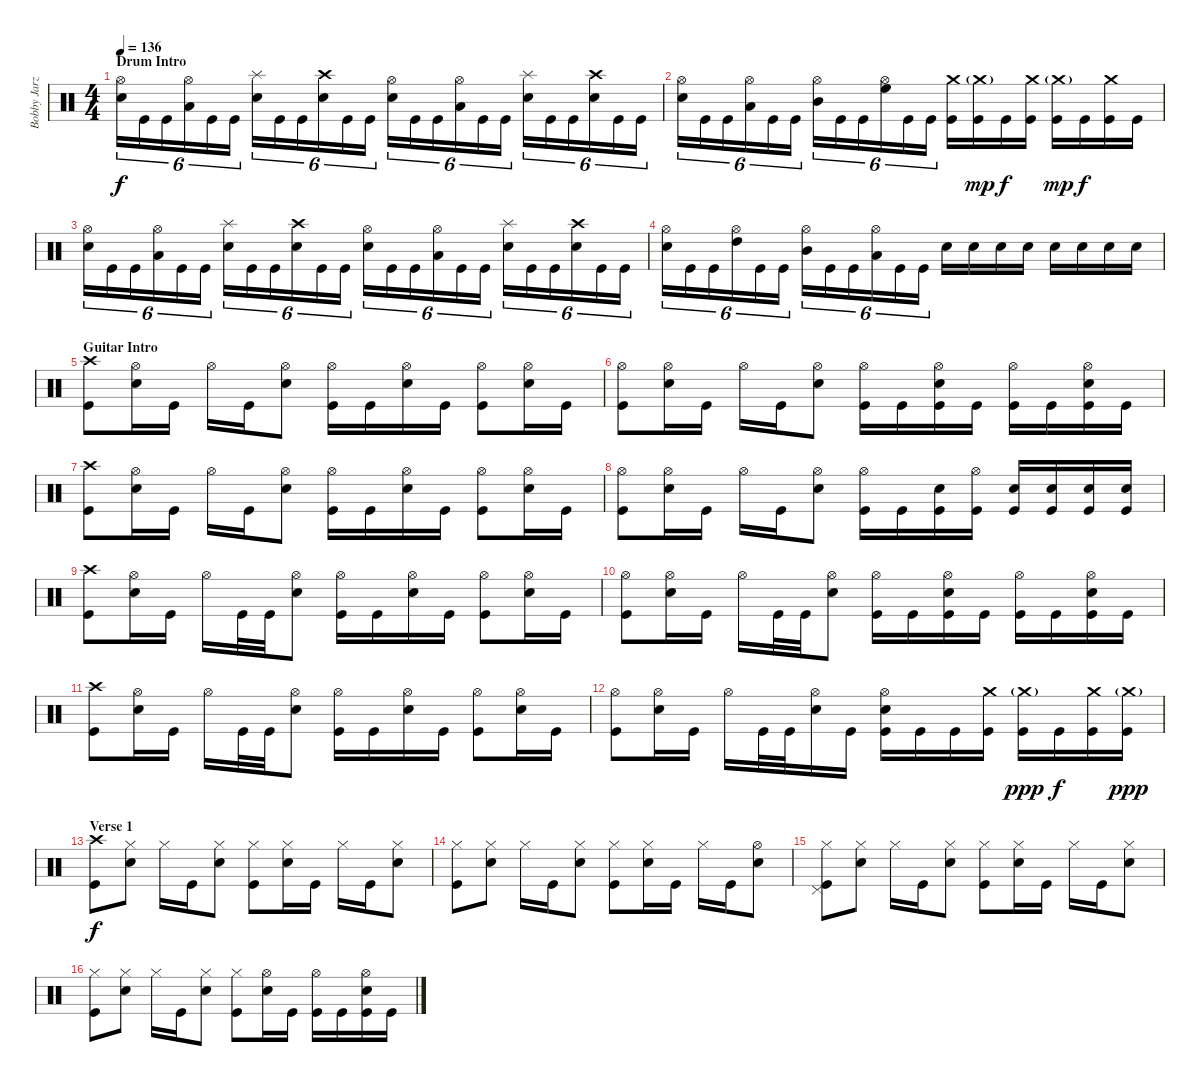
\track ("Bobby Jarzombek" "Bobby Jarz") {instrument percussion}
\staff {score}
\articulation defaults
\ts (4 4)
\section ("" "Drum Intro")
\tempo 136
\clef neutral
\ks c
("Hi-Hat (open)" "Electric Snare (hit)").16{tu (6 4) dy f} "Kick (hit)".16{tu (6 4)} "Kick (hit)".16{tu (6 4)} ("Hi-Hat (open)" "Low Tom (hit)").16{tu (6 4)} "Kick (hit)".16{tu (6 4)} "Kick (hit)".16{tu (6 4)} ("Splash (hit)" "Electric Snare (hit)").16{tu (6 4)} "Kick (hit)".16{tu (6 4)} "Kick (hit)".16{tu (6 4)} ("Crash high (hit)" "Electric Snare (hit)").16{tu (6 4)} "Kick (hit)".16{tu (6 4)} "Kick (hit)".16{tu (6 4)} ("Hi-Hat (open)" "Electric Snare (hit)").16{tu (6 4)} "Kick (hit)".16{tu (6 4)} "Kick (hit)".16{tu (6 4)} ("Hi-Hat (open)" "Low Tom (hit)").16{tu (6 4)} "Kick (hit)".16{tu (6 4)} "Kick (hit)".16{tu (6 4)} ("Splash (hit)" "Electric Snare (hit)").16{tu (6 4)} "Kick (hit)".16{tu (6 4)} "Kick (hit)".16{tu (6 4)} ("Crash high (hit)" "Electric Snare (hit)").16{tu (6 4)} "Kick (hit)".16{tu (6 4)} "Kick (hit)".16{tu (6 4)} |
("Hi-Hat (open)" "Electric Snare (hit)").16{tu (6 4)} "Kick (hit)".16{tu (6 4)} "Kick (hit)".16{tu (6 4)} ("Hi-Hat (open)" "Low Tom (hit)").16{tu (6 4)} "Kick (hit)".16{tu (6 4)} "Kick (hit)".16{tu (6 4)} ("Hi-Hat (open)" "Mid Tom (hit)").16{tu (6 4)} "Kick (hit)".16{tu (6 4)} "Kick (hit)".16{tu (6 4)} ("Hi-Hat (open)" "High Floor Tom (hit)").16{tu (6 4)} "Kick (hit)".16{tu (6 4)} "Kick (hit)".16{tu (6 4)} ("Crash medium (hit)" "Kick (hit)").16 ("Crash medium (hit)"{g} "Kick (hit)").16{dy mp} "Kick (hit)".16{dy f} ("Crash medium (hit)" "Kick (hit)").16 ("Crash medium (hit)"{g} "Kick (hit)").16{dy mp} "Kick (hit)".16{dy f} ("Crash medium (hit)" "Kick (hit)").16 "Kick (hit)".16 |
("Hi-Hat (open)" "Electric Snare (hit)").16{tu (6 4)} "Kick (hit)".16{tu (6 4)} "Kick (hit)".16{tu (6 4)} ("Hi-Hat (open)" "Low Tom (hit)").16{tu (6 4)} "Kick (hit)".16{tu (6 4)} "Kick (hit)".16{tu (6 4)} ("Splash (hit)" "Electric Snare (hit)").16{tu (6 4)} "Kick (hit)".16{tu (6 4)} "Kick (hit)".16{tu (6 4)} ("Crash high (hit)" "Electric Snare (hit)").16{tu (6 4)} "Kick (hit)".16{tu (6 4)} "Kick (hit)".16{tu (6 4)} ("Hi-Hat (open)" "Electric Snare (hit)").16{tu (6 4)} "Kick (hit)".16{tu (6 4)} "Kick (hit)".16{tu (6 4)} ("Hi-Hat (open)" "Low Tom (hit)").16{tu (6 4)} "Kick (hit)".16{tu (6 4)} "Kick (hit)".16{tu (6 4)} ("Splash (hit)" "Electric Snare (hit)").16{tu (6 4)} "Kick (hit)".16{tu (6 4)} "Kick (hit)".16{tu (6 4)} ("Crash high (hit)" "Electric Snare (hit)").16{tu (6 4)} "Kick (hit)".16{tu (6 4)} "Kick (hit)".16{tu (6 4)} |
("Hi-Hat (open)" "Electric Snare (hit)").16{tu (6 4)} "Kick (hit)".16{tu (6 4)} "Kick (hit)".16{tu (6 4)} ("Hi-Hat (open)" "High Tom (hit)").16{tu (6 4)} "Kick (hit)".16{tu (6 4)} "Kick (hit)".16{tu (6 4)} ("Hi-Hat (open)" "Mid Tom (hit)").16{tu (6 4)} "Kick (hit)".16{tu (6 4)} "Kick (hit)".16{tu (6 4)} ("Hi-Hat (open)" "Low Tom (hit)").16{tu (6 4)} "Kick (hit)".16{tu (6 4)} "Kick (hit)".16{tu (6 4)} "Electric Snare (hit)".16 "Electric Snare (hit)".16 "Electric Snare (hit)".16 "Electric Snare (hit)".16 "Electric Snare (hit)".16 "Electric Snare (hit)".16 "Electric Snare (hit)".16 "Electric Snare (hit)".16 |
\section ("" "Guitar Intro")
("Crash high (hit)" "Kick (hit)").8 ("Hi-Hat (open)" "Electric Snare (hit)").16 "Kick (hit)".16 "Hi-Hat (open)".16 "Kick (hit)".16 ("Hi-Hat (open)" "Electric Snare (hit)").8 ("Hi-Hat (open)" "Kick (hit)").16 "Kick (hit)".16 ("Hi-Hat (open)" "Electric Snare (hit)").16 "Kick (hit)".16 ("Hi-Hat (open)" "Kick (hit)").8 ("Hi-Hat (open)" "Electric Snare (hit)").16 "Kick (hit)".16 |
("Hi-Hat (open)" "Kick (hit)").8 ("Hi-Hat (open)" "Electric Snare (hit)").16 "Kick (hit)".16 "Hi-Hat (open)".16 "Kick (hit)".16 ("Hi-Hat (open)" "Electric Snare (hit)").8 ("Hi-Hat (open)" "Kick (hit)").16 "Kick (hit)".16 ("Hi-Hat (open)" "Electric Snare (hit)" "Kick (hit)").16 "Kick (hit)".16 ("Hi-Hat (open)" "Kick (hit)").16 "Kick (hit)".16 ("Hi-Hat (open)" "Electric Snare (hit)" "Kick (hit)").16 "Kick (hit)".16 |
("Crash high (hit)" "Kick (hit)").8 ("Hi-Hat (open)" "Electric Snare (hit)").16 "Kick (hit)".16 "Hi-Hat (open)".16 "Kick (hit)".16 ("Hi-Hat (open)" "Electric Snare (hit)").8 ("Hi-Hat (open)" "Kick (hit)").16 "Kick (hit)".16 ("Hi-Hat (open)" "Electric Snare (hit)").16 "Kick (hit)".16 ("Hi-Hat (open)" "Kick (hit)").8 ("Hi-Hat (open)" "Electric Snare (hit)").16 "Kick (hit)".16 |
("Hi-Hat (open)" "Kick (hit)").8 ("Hi-Hat (open)" "Electric Snare (hit)").16 "Kick (hit)".16 "Hi-Hat (open)".16 "Kick (hit)".16 ("Hi-Hat (open)" "Electric Snare (hit)").8 ("Hi-Hat (open)" "Kick (hit)").16 "Kick (hit)".16 ("Electric Snare (hit)" "Kick (hit)").16 ("Hi-Hat (open)" "Kick (hit)").16 ("Electric Snare (hit)" "Kick (hit)").16 ("Electric Snare (hit)" "Kick (hit)").16 ("Electric Snare (hit)" "Kick (hit)").16 ("Electric Snare (hit)" "Kick (hit)").16 |
("Crash high (hit)" "Kick (hit)").8 ("Hi-Hat (open)" "Electric Snare (hit)").16 "Kick (hit)".16 "Hi-Hat (open)".16 "Kick (hit)".32 "Kick (hit)".32 ("Hi-Hat (open)" "Electric Snare (hit)").8 ("Hi-Hat (open)" "Kick (hit)").16 "Kick (hit)".16 ("Hi-Hat (open)" "Electric Snare (hit)").16 "Kick (hit)".16 ("Hi-Hat (open)" "Kick (hit)").8 ("Hi-Hat (open)" "Electric Snare (hit)").16 "Kick (hit)".16 |
("Hi-Hat (open)" "Kick (hit)").8 ("Hi-Hat (open)" "Electric Snare (hit)").16 "Kick (hit)".16 "Hi-Hat (open)".16 "Kick (hit)".32 "Kick (hit)".32 ("Hi-Hat (open)" "Electric Snare (hit)").8 ("Hi-Hat (open)" "Kick (hit)").16 "Kick (hit)".16 ("Hi-Hat (open)" "Electric Snare (hit)" "Kick (hit)").16 "Kick (hit)".16 ("Hi-Hat (open)" "Kick (hit)").16 "Kick (hit)".16 ("Hi-Hat (open)" "Electric Snare (hit)" "Kick (hit)").16 "Kick (hit)".16 |
("Crash high (hit)" "Kick (hit)").8 ("Hi-Hat (open)" "Electric Snare (hit)").16 "Kick (hit)".16 "Hi-Hat (open)".16 "Kick (hit)".32 "Kick (hit)".32 ("Hi-Hat (open)" "Electric Snare (hit)").8 ("Hi-Hat (open)" "Kick (hit)").16 "Kick (hit)".16 ("Hi-Hat (open)" "Electric Snare (hit)").16 "Kick (hit)".16 ("Hi-Hat (open)" "Kick (hit)").8 ("Hi-Hat (open)" "Electric Snare (hit)").16 "Kick (hit)".16 |
("Hi-Hat (open)" "Kick (hit)").8 ("Hi-Hat (open)" "Electric Snare (hit)").16 "Kick (hit)".16 "Hi-Hat (open)".16 "Kick (hit)".32 "Kick (hit)".32 ("Hi-Hat (open)" "Electric Snare (hit)").16 "Kick (hit)".16 ("Hi-Hat (open)" "Electric Snare (hit)" "Kick (hit)").16 "Kick (hit)".16 "Kick (hit)".16 ("Crash medium (hit)" "Kick (hit)").16 ("Crash medium (hit)"{g} "Kick (hit)").16{dy ppp} "Kick (hit)".16{dy f} ("Crash medium (hit)" "Kick (hit)").16 ("Crash medium (hit)"{g} "Kick (hit)").16{dy ppp} |
\section ("" "Verse 1")
("Crash high (hit)" "Kick (hit)").8{dy f} ("Hi-Hat (closed)" "Electric Snare (hit)").8 "Hi-Hat (closed)".16 "Kick (hit)".16 ("Hi-Hat (closed)" "Electric Snare (hit)").8 ("Hi-Hat (closed)" "Kick (hit)").8 ("Hi-Hat (closed)" "Electric Snare (hit)").16 "Kick (hit)".16 "Hi-Hat (closed)".16 "Kick (hit)".16 ("Hi-Hat (closed)" "Electric Snare (hit)").8 |
("Hi-Hat (closed)" "Kick (hit)").8 ("Hi-Hat (closed)" "Electric Snare (hit)").8 "Hi-Hat (closed)".16 "Kick (hit)".16 ("Hi-Hat (closed)" "Electric Snare (hit)").8 ("Hi-Hat (closed)" "Kick (hit)").8 ("Hi-Hat (closed)" "Electric Snare (hit)").16 "Kick (hit)".16 "Hi-Hat (closed)".16 "Kick (hit)".16 ("Hi-Hat (open)" "Electric Snare (hit)").8 |
("Hi-Hat (closed)" "Pedal Hi-Hat (hit)" "Kick (hit)").8 ("Hi-Hat (closed)" "Electric Snare (hit)").8 "Hi-Hat (closed)".16 "Kick (hit)".16 ("Hi-Hat (closed)" "Electric Snare (hit)").8 ("Hi-Hat (closed)" "Kick (hit)").8 ("Hi-Hat (closed)" "Electric Snare (hit)").16 "Kick (hit)".16 "Hi-Hat (closed)".16 "Kick (hit)".16 ("Hi-Hat (closed)" "Electric Snare (hit)").8 |
("Hi-Hat (closed)" "Kick (hit)").8 ("Hi-Hat (closed)" "Electric Snare (hit)").8 "Hi-Hat (closed)".16 "Kick (hit)".16 ("Hi-Hat (closed)" "Electric Snare (hit)").8 ("Hi-Hat (closed)" "Kick (hit)").8 ("Hi-Hat (open)" "Electric Snare (hit)").16 "Kick (hit)".16 ("Hi-Hat (open)" "Kick (hit)").16 "Kick (hit)".16 ("Hi-Hat (open)" "Electric Snare (hit)" "Kick (hit)").16 "Kick (hit)".16
